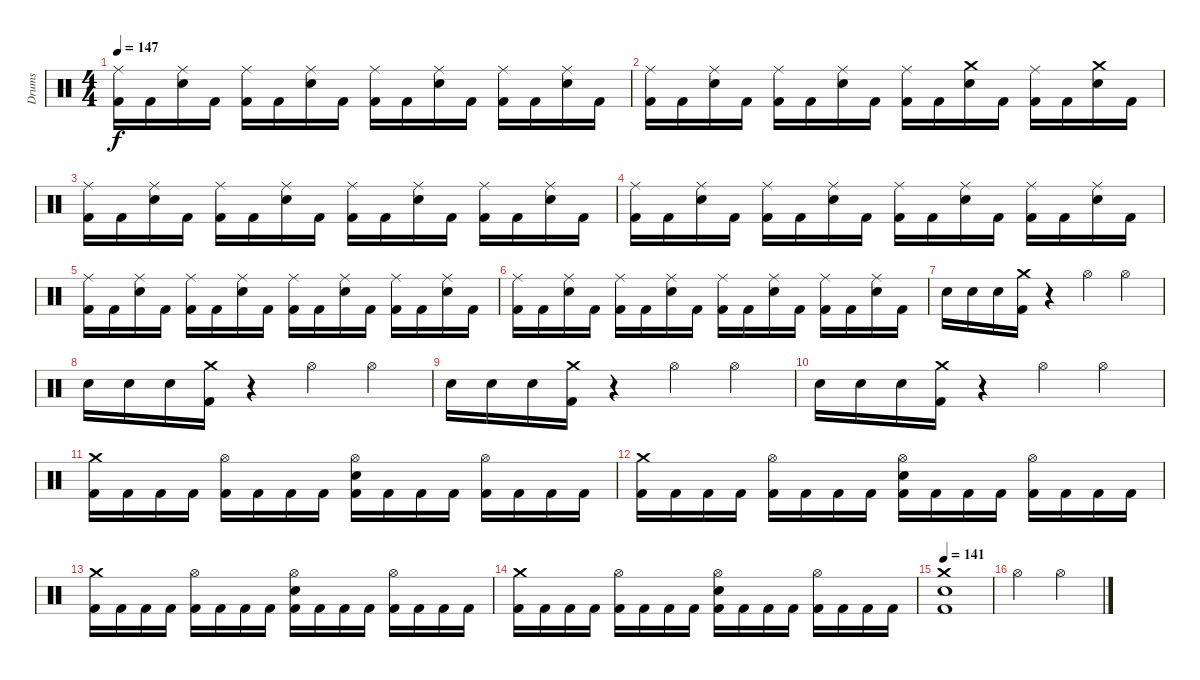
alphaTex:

\track ("Drums" "Drums") {instrument percussion}
\staff {score}
\articulation defaults
\ts (4 4)
\tempo 147
\clef neutral
\ks c
("Kick (hit) 2" "Ride (middle)").16{dy f} "Kick (hit) 2".16 ("Snare (hit) 2" "Ride (middle)").16 "Kick (hit) 2".16 ("Kick (hit) 2" "Ride (middle)").16 "Kick (hit) 2".16 ("Snare (hit) 2" "Ride (middle)").16 "Kick (hit) 2".16 ("Kick (hit) 2" "Ride (middle)").16 "Kick (hit) 2".16 ("Snare (hit) 2" "Ride (middle)").16 "Kick (hit) 2".16 ("Kick (hit) 2" "Ride (middle)").16 "Kick (hit) 2".16 ("Snare (hit) 2" "Ride (middle)").16 "Kick (hit) 2".16 |
("Kick (hit) 2" "Ride (middle)").16 "Kick (hit) 2".16 ("Snare (hit) 2" "Ride (middle)").16 "Kick (hit) 2".16 ("Kick (hit) 2" "Ride (middle)").16 "Kick (hit) 2".16 ("Snare (hit) 2" "Ride (middle)").16 "Kick (hit) 2".16 ("Kick (hit) 2" "Ride (middle)").16 "Kick (hit) 2".16 ("Snare (hit) 2" "Crash medium (hit)").16 "Kick (hit) 2".16 ("Kick (hit) 2" "Ride (middle)").16 "Kick (hit) 2".16 ("Snare (hit) 2" "Crash medium (hit)").16 "Kick (hit) 2".16 |
("Kick (hit) 2" "Ride (middle)").16 "Kick (hit) 2".16 ("Snare (hit) 2" "Ride (middle)").16 "Kick (hit) 2".16 ("Kick (hit) 2" "Ride (middle)").16 "Kick (hit) 2".16 ("Snare (hit) 2" "Ride (middle)").16 "Kick (hit) 2".16 ("Kick (hit) 2" "Ride (middle)").16 "Kick (hit) 2".16 ("Snare (hit) 2" "Ride (middle)").16 "Kick (hit) 2".16 ("Kick (hit) 2" "Ride (middle)").16 "Kick (hit) 2".16 ("Snare (hit) 2" "Ride (middle)").16 "Kick (hit) 2".16 |
("Kick (hit) 2" "Ride (middle)").16 "Kick (hit) 2".16 ("Snare (hit) 2" "Ride (middle)").16 "Kick (hit) 2".16 ("Kick (hit) 2" "Ride (middle)").16 "Kick (hit) 2".16 ("Snare (hit) 2" "Ride (middle)").16 "Kick (hit) 2".16 ("Kick (hit) 2" "Ride (middle)").16 "Kick (hit) 2".16 ("Snare (hit) 2" "Ride (middle)").16 "Kick (hit) 2".16 ("Kick (hit) 2" "Ride (middle)").16 "Kick (hit) 2".16 ("Snare (hit) 2" "Ride (middle)").16 "Kick (hit) 2".16 |
("Kick (hit) 2" "Ride (middle)").16 "Kick (hit) 2".16 ("Snare (hit) 2" "Ride (middle)").16 "Kick (hit) 2".16 ("Kick (hit) 2" "Ride (middle)").16 "Kick (hit) 2".16 ("Snare (hit) 2" "Ride (middle)").16 "Kick (hit) 2".16 ("Kick (hit) 2" "Ride (middle)").16 "Kick (hit) 2".16 ("Snare (hit) 2" "Ride (middle)").16 "Kick (hit) 2".16 ("Kick (hit) 2" "Ride (middle)").16 "Kick (hit) 2".16 ("Snare (hit) 2" "Ride (middle)").16 "Kick (hit) 2".16 |
("Kick (hit) 2" "Ride (middle)").16 "Kick (hit) 2".16 ("Snare (hit) 2" "Ride (middle)").16 "Kick (hit) 2".16 ("Kick (hit) 2" "Ride (middle)").16 "Kick (hit) 2".16 ("Snare (hit) 2" "Ride (middle)").16 "Kick (hit) 2".16 ("Kick (hit) 2" "Ride (middle)").16 "Kick (hit) 2".16 ("Snare (hit) 2" "Ride (middle)").16 "Kick (hit) 2".16 ("Kick (hit) 2" "Ride (middle)").16 "Kick (hit) 2".16 ("Snare (hit) 2" "Ride (middle)").16 "Kick (hit) 2".16 |
"Snare (hit) 2".16 "Snare (hit) 2".16 "Snare (hit) 2".16 ("Kick (hit) 2" "Crash medium (hit)").16 r.4 "Hi-Hat (open)".4 "Hi-Hat (open)".4 |
"Snare (hit) 2".16 "Snare (hit) 2".16 "Snare (hit) 2".16 ("Kick (hit) 2" "Crash medium (hit)").16 r.4 "Hi-Hat (open)".4 "Hi-Hat (open)".4 |
"Snare (hit) 2".16 "Snare (hit) 2".16 "Snare (hit) 2".16 ("Kick (hit) 2" "Crash medium (hit)").16 r.4 "Hi-Hat (open)".4 "Hi-Hat (open)".4 |
"Snare (hit) 2".16 "Snare (hit) 2".16 "Snare (hit) 2".16 ("Kick (hit) 2" "Crash medium (hit)").16 r.4 "Hi-Hat (open)".4 "Hi-Hat (open)".4 |
("Kick (hit) 2" "Crash medium (hit)").16 "Kick (hit) 2".16 "Kick (hit) 2".16 "Kick (hit) 2".16 ("Kick (hit) 2" "Hi-Hat (open)").16 "Kick (hit) 2".16 "Kick (hit) 2".16 "Kick (hit) 2".16 ("Kick (hit) 2" "Snare (hit) 2" "Hi-Hat (open)").16 "Kick (hit) 2".16 "Kick (hit) 2".16 "Kick (hit) 2".16 ("Kick (hit) 2" "Hi-Hat (open)").16 "Kick (hit) 2".16 "Kick (hit) 2".16 "Kick (hit) 2".16 |
("Kick (hit) 2" "Crash medium (hit)").16 "Kick (hit) 2".16 "Kick (hit) 2".16 "Kick (hit) 2".16 ("Kick (hit) 2" "Hi-Hat (open)").16 "Kick (hit) 2".16 "Kick (hit) 2".16 "Kick (hit) 2".16 ("Kick (hit) 2" "Snare (hit) 2" "Hi-Hat (open)").16 "Kick (hit) 2".16 "Kick (hit) 2".16 "Kick (hit) 2".16 ("Kick (hit) 2" "Hi-Hat (open)").16 "Kick (hit) 2".16 "Kick (hit) 2".16 "Kick (hit) 2".16 |
("Kick (hit) 2" "Crash medium (hit)").16 "Kick (hit) 2".16 "Kick (hit) 2".16 "Kick (hit) 2".16 ("Kick (hit) 2" "Hi-Hat (open)").16 "Kick (hit) 2".16 "Kick (hit) 2".16 "Kick (hit) 2".16 ("Kick (hit) 2" "Snare (hit) 2" "Hi-Hat (open)").16 "Kick (hit) 2".16 "Kick (hit) 2".16 "Kick (hit) 2".16 ("Kick (hit) 2" "Hi-Hat (open)").16 "Kick (hit) 2".16 "Kick (hit) 2".16 "Kick (hit) 2".16 |
("Kick (hit) 2" "Crash medium (hit)").16 "Kick (hit) 2".16 "Kick (hit) 2".16 "Kick (hit) 2".16 ("Kick (hit) 2" "Hi-Hat (open)").16 "Kick (hit) 2".16 "Kick (hit) 2".16 "Kick (hit) 2".16 ("Kick (hit) 2" "Snare (hit) 2" "Hi-Hat (open)").16 "Kick (hit) 2".16 "Kick (hit) 2".16 "Kick (hit) 2".16 ("Kick (hit) 2" "Hi-Hat (open)").16 "Kick (hit) 2".16 "Kick (hit) 2".16 "Kick (hit) 2".16 |
\tempo 141
("Kick (hit) 2" "Snare (hit) 2" "Crash medium (hit)").1 |
"Hi-Hat (open)".2 "Hi-Hat (open)".2
